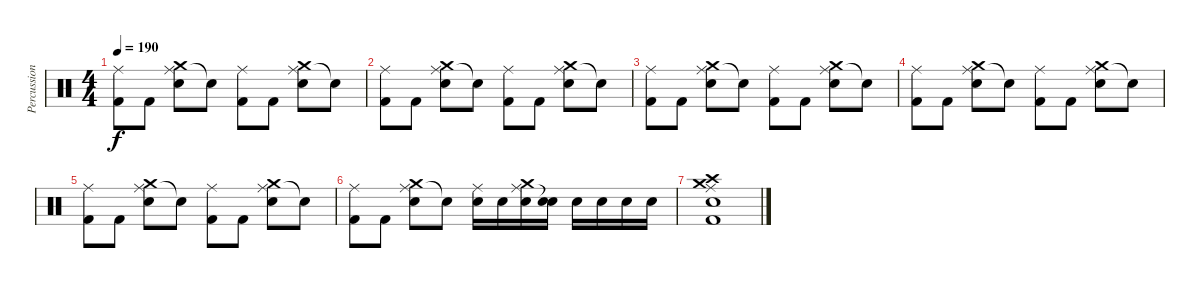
\track ("Percussions" "Percussion") {instrument percussion}
\staff {score}
\articulation defaults
\ts (4 4)
\tempo 190
\clef neutral
\ks c
("Ride (middle)" "Kick (hit) 2").8{dy f} "Kick (hit) 2".8 ("Ride (middle)" "Crash medium (hit)" "Electric Snare (hit)").8 "Snare (hit)"{t}.8 ("Ride (middle)" "Kick (hit) 2").8 "Kick (hit) 2".8 ("Ride (middle)" "Crash medium (hit)" "Electric Snare (hit)").8 "Snare (hit)"{t}.8 |
("Ride (middle)" "Kick (hit) 2").8 "Kick (hit) 2".8 ("Ride (middle)" "Crash medium (hit)" "Electric Snare (hit)").8 "Snare (hit)"{t}.8 ("Ride (middle)" "Kick (hit) 2").8 "Kick (hit) 2".8 ("Ride (middle)" "Crash medium (hit)" "Electric Snare (hit)").8 "Snare (hit)"{t}.8 |
("Ride (middle)" "Kick (hit) 2").8 "Kick (hit) 2".8 ("Ride (middle)" "Crash medium (hit)" "Electric Snare (hit)").8 "Snare (hit)"{t}.8 ("Ride (middle)" "Kick (hit) 2").8 "Kick (hit) 2".8 ("Ride (middle)" "Crash medium (hit)" "Electric Snare (hit)").8 "Snare (hit)"{t}.8 |
("Ride (middle)" "Kick (hit) 2").8 "Kick (hit) 2".8 ("Ride (middle)" "Crash medium (hit)" "Electric Snare (hit)").8 "Snare (hit)"{t}.8 ("Ride (middle)" "Kick (hit) 2").8 "Kick (hit) 2".8 ("Ride (middle)" "Crash medium (hit)" "Electric Snare (hit)").8 "Snare (hit)"{t}.8 |
("Ride (middle)" "Kick (hit) 2").8 "Kick (hit) 2".8 ("Ride (middle)" "Crash medium (hit)" "Electric Snare (hit)").8 "Snare (hit)"{t}.8 ("Ride (middle)" "Kick (hit) 2").8 "Kick (hit) 2".8 ("Ride (middle)" "Crash medium (hit)" "Electric Snare (hit)").8 "Snare (hit)"{t}.8 |
("Ride (middle)" "Kick (hit) 2").8 "Kick (hit) 2".8 ("Ride (middle)" "Crash medium (hit)" "Electric Snare (hit)").8 "Snare (hit)"{t}.8 ("Ride (middle)" "Electric Snare (hit)").16 "Electric Snare (hit)".16 ("Ride (middle)" "Crash medium (hit)" "Electric Snare (hit)").16 ("Snare (hit)"{t} "Electric Snare (hit)").16 "Electric Snare (hit)".16 "Electric Snare (hit)".16 "Electric Snare (hit)".16 "Electric Snare (hit)".16 |
("Crash high (hit)" "Crash medium (hit)" "Ride (middle)" "Electric Snare (hit)" "Kick (hit) 2").1
